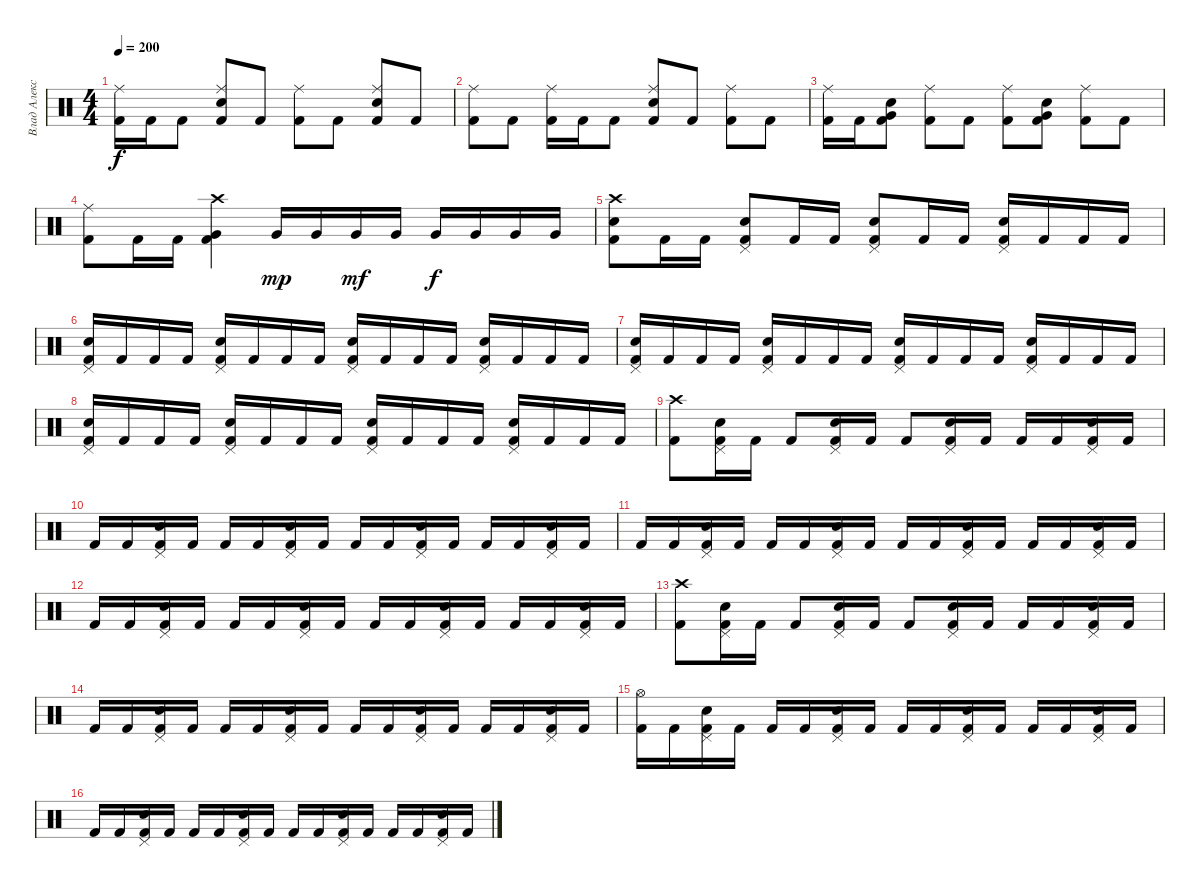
\track ("Влад Алексеенко" "Влад Алекс") {instrument percussion}
\staff {score}
\articulation defaults
\ts (4 4)
\tempo 200
\clef neutral
\ks c
("Kick (hit) 2" "Ride (middle)").16{dy f} "Kick (hit) 2".16 "Kick (hit) 2".8 ("Electric Snare (hit)" "Kick (hit) 2" "Ride (middle)").8 "Kick (hit) 2".8 ("Kick (hit) 2" "Ride (middle)").8 "Kick (hit) 2".8 ("Electric Snare (hit)" "Kick (hit) 2" "Ride (middle)").8 "Kick (hit) 2".8 |
("Kick (hit) 2" "Ride (middle)").8 "Kick (hit) 2".8 ("Kick (hit) 2" "Ride (middle)").16 "Kick (hit) 2".16 "Kick (hit) 2".8 ("Kick (hit) 2" "Electric Snare (hit)" "Ride (middle)").8 "Kick (hit) 2".8 ("Kick (hit) 2" "Ride (middle)").8 "Kick (hit) 2".8 |
("Kick (hit) 2" "Ride (middle)").16 "Kick (hit) 2".16 ("Very Low Tom (hit)" "Electric Snare (hit)" "Kick (hit) 2").8 ("Kick (hit) 2" "Ride (middle)").8 "Kick (hit) 2".8 ("Kick (hit) 2" "Ride (middle)").8 ("Electric Snare (hit)" "Very Low Tom (hit)" "Kick (hit) 2").8 ("Kick (hit) 2" "Ride (middle)").8 "Kick (hit) 2".8 |
("Kick (hit) 2" "Ride (middle)").8 "Kick (hit) 2".16 "Kick (hit) 2".16 ("Crash high (hit)" "Very Low Tom (hit)" "Kick (hit) 2").4 "Very Low Tom (hit)".16{dy mp} "Very Low Tom (hit)".16 "Very Low Tom (hit)".16{dy mf} "Very Low Tom (hit)".16 "Very Low Tom (hit)".16{dy f} "Very Low Tom (hit)".16 "Very Low Tom (hit)".16 "Very Low Tom (hit)".16 |
("Kick (hit) 2" "Crash high (hit)" "Electric Snare (hit)").8 "Kick (hit) 2".16 "Kick (hit) 2".16 ("Kick (hit) 2" "Electric Snare (hit)" "Pedal Hi-Hat (hit)").8 "Kick (hit) 2".16 "Kick (hit) 2".16 ("Kick (hit) 2" "Electric Snare (hit)" "Pedal Hi-Hat (hit)").8 "Kick (hit) 2".16 "Kick (hit) 2".16 ("Kick (hit) 2" "Electric Snare (hit)" "Pedal Hi-Hat (hit)").16 "Kick (hit) 2".16 "Kick (hit) 2".16 "Kick (hit) 2".16 |
("Kick (hit) 2" "Electric Snare (hit)" "Pedal Hi-Hat (hit)").16 "Kick (hit) 2".16 "Kick (hit) 2".16 "Kick (hit) 2".16 ("Kick (hit) 2" "Electric Snare (hit)" "Pedal Hi-Hat (hit)").16 "Kick (hit) 2".16 "Kick (hit) 2".16 "Kick (hit) 2".16 ("Kick (hit) 2" "Electric Snare (hit)" "Pedal Hi-Hat (hit)").16 "Kick (hit) 2".16 "Kick (hit) 2".16 "Kick (hit) 2".16 ("Kick (hit) 2" "Electric Snare (hit)" "Pedal Hi-Hat (hit)").16 "Kick (hit) 2".16 "Kick (hit) 2".16 "Kick (hit) 2".16 |
("Kick (hit) 2" "Electric Snare (hit)" "Pedal Hi-Hat (hit)").16 "Kick (hit) 2".16 "Kick (hit) 2".16 "Kick (hit) 2".16 ("Kick (hit) 2" "Electric Snare (hit)" "Pedal Hi-Hat (hit)").16 "Kick (hit) 2".16 "Kick (hit) 2".16 "Kick (hit) 2".16 ("Kick (hit) 2" "Electric Snare (hit)" "Pedal Hi-Hat (hit)").16 "Kick (hit) 2".16 "Kick (hit) 2".16 "Kick (hit) 2".16 ("Kick (hit) 2" "Electric Snare (hit)" "Pedal Hi-Hat (hit)").16 "Kick (hit) 2".16 "Kick (hit) 2".16 "Kick (hit) 2".16 |
("Kick (hit) 2" "Electric Snare (hit)" "Pedal Hi-Hat (hit)").16 "Kick (hit) 2".16 "Kick (hit) 2".16 "Kick (hit) 2".16 ("Kick (hit) 2" "Electric Snare (hit)" "Pedal Hi-Hat (hit)").16 "Kick (hit) 2".16 "Kick (hit) 2".16 "Kick (hit) 2".16 ("Kick (hit) 2" "Electric Snare (hit)" "Pedal Hi-Hat (hit)").16 "Kick (hit) 2".16 "Kick (hit) 2".16 "Kick (hit) 2".16 ("Kick (hit) 2" "Electric Snare (hit)" "Pedal Hi-Hat (hit)").16 "Kick (hit) 2".16 "Kick (hit) 2".16 "Kick (hit) 2".16 |
("Kick (hit) 2" "Crash high (hit)").8 ("Kick (hit) 2" "Electric Snare (hit)" "Pedal Hi-Hat (hit)").16 "Kick (hit) 2".16 "Kick (hit) 2".8 ("Kick (hit) 2" "Electric Snare (hit)" "Pedal Hi-Hat (hit)").16 "Kick (hit) 2".16 "Kick (hit) 2".8 ("Kick (hit) 2" "Electric Snare (hit)" "Pedal Hi-Hat (hit)").16 "Kick (hit) 2".16 "Kick (hit) 2".16 "Kick (hit) 2".16 ("Kick (hit) 2" "Electric Snare (hit)" "Pedal Hi-Hat (hit)").16 "Kick (hit) 2".16 |
"Kick (hit) 2".16 "Kick (hit) 2".16 ("Kick (hit) 2" "Electric Snare (hit)" "Pedal Hi-Hat (hit)").16 "Kick (hit) 2".16 "Kick (hit) 2".16 "Kick (hit) 2".16 ("Kick (hit) 2" "Electric Snare (hit)" "Pedal Hi-Hat (hit)").16 "Kick (hit) 2".16 "Kick (hit) 2".16 "Kick (hit) 2".16 ("Kick (hit) 2" "Electric Snare (hit)" "Pedal Hi-Hat (hit)").16 "Kick (hit) 2".16 "Kick (hit) 2".16 "Kick (hit) 2".16 ("Kick (hit) 2" "Electric Snare (hit)" "Pedal Hi-Hat (hit)").16 "Kick (hit) 2".16 |
"Kick (hit) 2".16 "Kick (hit) 2".16 ("Kick (hit) 2" "Electric Snare (hit)" "Pedal Hi-Hat (hit)").16 "Kick (hit) 2".16 "Kick (hit) 2".16 "Kick (hit) 2".16 ("Kick (hit) 2" "Electric Snare (hit)" "Pedal Hi-Hat (hit)").16 "Kick (hit) 2".16 "Kick (hit) 2".16 "Kick (hit) 2".16 ("Kick (hit) 2" "Electric Snare (hit)" "Pedal Hi-Hat (hit)").16 "Kick (hit) 2".16 "Kick (hit) 2".16 "Kick (hit) 2".16 ("Kick (hit) 2" "Electric Snare (hit)" "Pedal Hi-Hat (hit)").16 "Kick (hit) 2".16 |
"Kick (hit) 2".16 "Kick (hit) 2".16 ("Kick (hit) 2" "Electric Snare (hit)" "Pedal Hi-Hat (hit)").16 "Kick (hit) 2".16 "Kick (hit) 2".16 "Kick (hit) 2".16 ("Kick (hit) 2" "Electric Snare (hit)" "Pedal Hi-Hat (hit)").16 "Kick (hit) 2".16 "Kick (hit) 2".16 "Kick (hit) 2".16 ("Kick (hit) 2" "Electric Snare (hit)" "Pedal Hi-Hat (hit)").16 "Kick (hit) 2".16 "Kick (hit) 2".16 "Kick (hit) 2".16 ("Kick (hit) 2" "Electric Snare (hit)" "Pedal Hi-Hat (hit)").16 "Kick (hit) 2".16 |
("Kick (hit) 2" "Crash high (hit)").8 ("Kick (hit) 2" "Electric Snare (hit)" "Pedal Hi-Hat (hit)").16 "Kick (hit) 2".16 "Kick (hit) 2".8 ("Kick (hit) 2" "Electric Snare (hit)" "Pedal Hi-Hat (hit)").16 "Kick (hit) 2".16 "Kick (hit) 2".8 ("Kick (hit) 2" "Electric Snare (hit)" "Pedal Hi-Hat (hit)").16 "Kick (hit) 2".16 "Kick (hit) 2".16 "Kick (hit) 2".16 ("Kick (hit) 2" "Electric Snare (hit)" "Pedal Hi-Hat (hit)").16 "Kick (hit) 2".16 |
"Kick (hit) 2".16 "Kick (hit) 2".16 ("Kick (hit) 2" "Electric Snare (hit)" "Pedal Hi-Hat (hit)").16 "Kick (hit) 2".16 "Kick (hit) 2".16 "Kick (hit) 2".16 ("Kick (hit) 2" "Electric Snare (hit)" "Pedal Hi-Hat (hit)").16 "Kick (hit) 2".16 "Kick (hit) 2".16 "Kick (hit) 2".16 ("Kick (hit) 2" "Electric Snare (hit)" "Pedal Hi-Hat (hit)").16 "Kick (hit) 2".16 "Kick (hit) 2".16 "Kick (hit) 2".16 ("Kick (hit) 2" "Electric Snare (hit)" "Pedal Hi-Hat (hit)").16 "Kick (hit) 2".16 |
("Kick (hit) 2" "Hi-Hat (open)").16 "Kick (hit) 2".16 ("Kick (hit) 2" "Electric Snare (hit)" "Pedal Hi-Hat (hit)").16 "Kick (hit) 2".16 "Kick (hit) 2".16 "Kick (hit) 2".16 ("Kick (hit) 2" "Electric Snare (hit)" "Pedal Hi-Hat (hit)").16 "Kick (hit) 2".16 "Kick (hit) 2".16 "Kick (hit) 2".16 ("Kick (hit) 2" "Electric Snare (hit)" "Pedal Hi-Hat (hit)").16 "Kick (hit) 2".16 "Kick (hit) 2".16 "Kick (hit) 2".16 ("Kick (hit) 2" "Electric Snare (hit)" "Pedal Hi-Hat (hit)").16 "Kick (hit) 2".16 |
"Kick (hit) 2".16 "Kick (hit) 2".16 ("Kick (hit) 2" "Electric Snare (hit)" "Pedal Hi-Hat (hit)").16 "Kick (hit) 2".16 "Kick (hit) 2".16 "Kick (hit) 2".16 ("Kick (hit) 2" "Electric Snare (hit)" "Pedal Hi-Hat (hit)").16 "Kick (hit) 2".16 "Kick (hit) 2".16 "Kick (hit) 2".16 ("Kick (hit) 2" "Electric Snare (hit)" "Pedal Hi-Hat (hit)").16 "Kick (hit) 2".16 "Kick (hit) 2".16 "Kick (hit) 2".16 ("Kick (hit) 2" "Electric Snare (hit)" "Pedal Hi-Hat (hit)").16 "Kick (hit) 2".16
